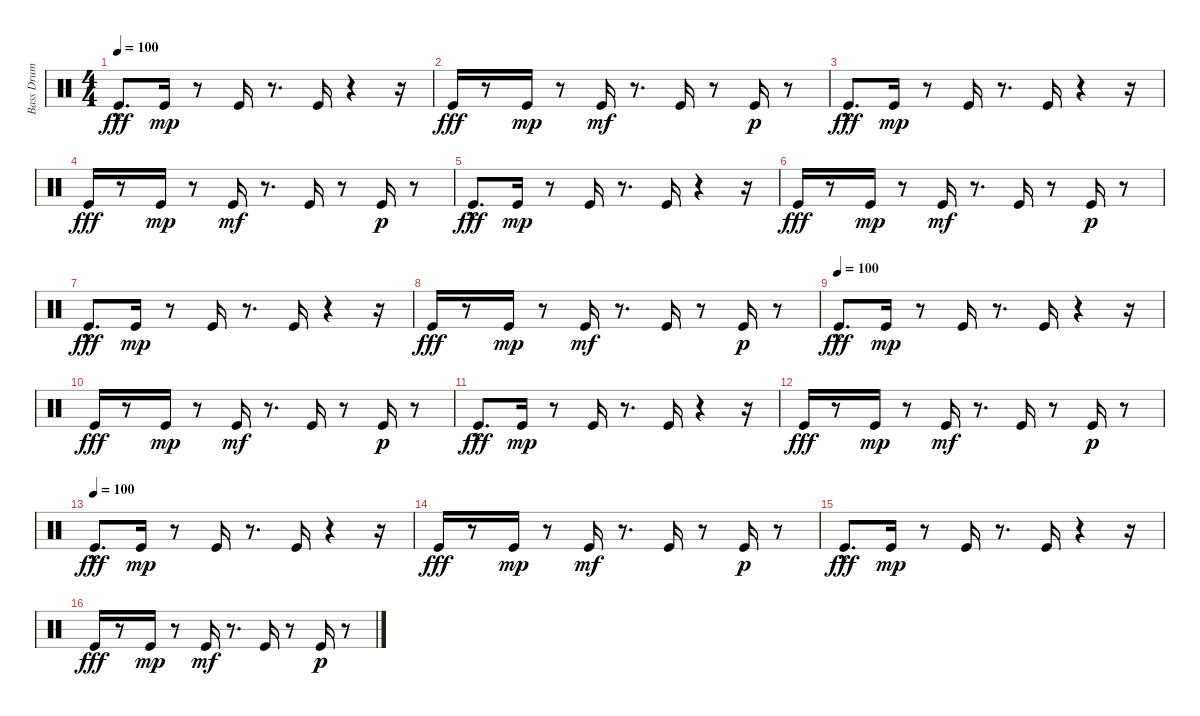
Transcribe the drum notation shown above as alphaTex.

\track ("Bass Drum" "Bass Drum") {instrument percussion}
\staff {score}
\articulation defaults
\ts (4 4)
\tempo 100
\clef neutral
\ks c "Kick (hit)"{hac}.8{d dy fff} "Kick (hit)".16{dy mp}
r.8 "Kick (hit)".16 r.8{d} "Kick (hit)".16 r.4 r.16 |
"Kick (hit)".16{dy fff} r.8 "Kick (hit)".16{dy mp} r.8 "Kick (hit)".16{dy mf} r.8{d} "Kick (hit)".16 r.8 "Kick (hit)".16{dy p} r.8 |
"Kick (hit)"{hac}.8{d dy fff} "Kick (hit)".16{dy mp} r.8 "Kick (hit)".16 r.8{d} "Kick (hit)".16 r.4 r.16 |
"Kick (hit)".16{dy fff} r.8 "Kick (hit)".16{dy mp} r.8 "Kick (hit)".16{dy mf} r.8{d} "Kick (hit)".16 r.8 "Kick (hit)".16{dy p} r.8 |
"Kick (hit)"{hac}.8{d dy fff} "Kick (hit)".16{dy mp} r.8 "Kick (hit)".16 r.8{d} "Kick (hit)".16 r.4 r.16 |
"Kick (hit)".16{dy fff} r.8 "Kick (hit)".16{dy mp} r.8 "Kick (hit)".16{dy mf} r.8{d} "Kick (hit)".16 r.8 "Kick (hit)".16{dy p} r.8 |
"Kick (hit)"{hac}.8{d dy fff} "Kick (hit)".16{dy mp} r.8 "Kick (hit)".16 r.8{d} "Kick (hit)".16 r.4 r.16 |
"Kick (hit)".16{dy fff} r.8 "Kick (hit)".16{dy mp} r.8 "Kick (hit)".16{dy mf} r.8{d} "Kick (hit)".16 r.8 "Kick (hit)".16{dy p} r.8 |
\tempo (100)
"Kick (hit)"{hac}.8{d dy fff} "Kick (hit)".16{dy mp} r.8 "Kick (hit)".16 r.8{d} "Kick (hit)".16 r.4 r.16 |
"Kick (hit)".16{dy fff} r.8 "Kick (hit)".16{dy mp} r.8 "Kick (hit)".16{dy mf} r.8{d} "Kick (hit)".16 r.8 "Kick (hit)".16{dy p} r.8 |
"Kick (hit)"{hac}.8{d dy fff} "Kick (hit)".16{dy mp} r.8 "Kick (hit)".16 r.8{d} "Kick (hit)".16 r.4 r.16 |
"Kick (hit)".16{dy fff} r.8 "Kick (hit)".16{dy mp} r.8 "Kick (hit)".16{dy mf} r.8{d} "Kick (hit)".16 r.8 "Kick (hit)".16{dy p} r.8 |
\tempo (100)
"Kick (hit)"{hac}.8{d dy fff} "Kick (hit)".16{dy mp} r.8 "Kick (hit)".16 r.8{d} "Kick (hit)".16 r.4 r.16 |
"Kick (hit)".16{dy fff} r.8 "Kick (hit)".16{dy mp} r.8 "Kick (hit)".16{dy mf} r.8{d} "Kick (hit)".16 r.8 "Kick (hit)".16{dy p} r.8 |
"Kick (hit)"{hac}.8{d dy fff} "Kick (hit)".16{dy mp} r.8 "Kick (hit)".16 r.8{d} "Kick (hit)".16 r.4 r.16 |
"Kick (hit)".16{dy fff} r.8 "Kick (hit)".16{dy mp} r.8 "Kick (hit)".16{dy mf} r.8{d} "Kick (hit)".16 r.8 "Kick (hit)".16{dy p} r.8
